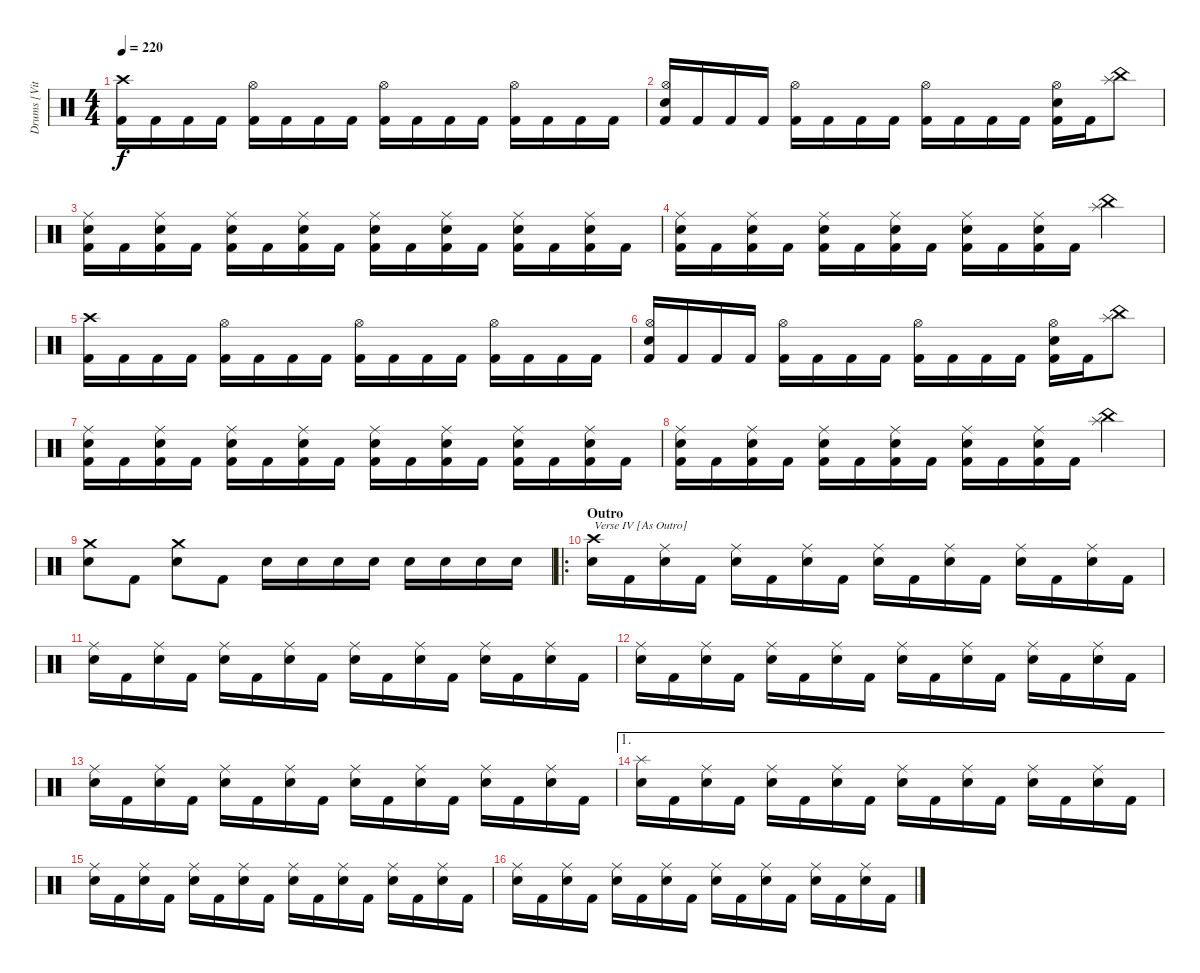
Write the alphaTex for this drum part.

\track ("Drums [Vitek]" "Drums [Vit") {instrument percussion}
\staff {score}
\articulation defaults
\ts (4 4)
\tempo 220
\clef neutral
\ks c
("Crash high (hit)" "Kick (hit) 2").16{dy f} "Kick (hit) 2".16 "Kick (hit) 2".16 "Kick (hit) 2".16 ("Hi-Hat (open)" "Kick (hit) 2").16 "Kick (hit) 2".16 "Kick (hit) 2".16 "Kick (hit) 2".16 ("Hi-Hat (open)" "Kick (hit) 2").16 "Kick (hit) 2".16 "Kick (hit) 2".16 "Kick (hit) 2".16 ("Hi-Hat (open)" "Kick (hit) 2").16 "Kick (hit) 2".16 "Kick (hit) 2".16 "Kick (hit) 2".16 |
("Hi-Hat (open)" "Electric Snare (hit)" "Kick (hit) 2").16 "Kick (hit) 2".16 "Kick (hit) 2".16 "Kick (hit) 2".16 ("Hi-Hat (open)" "Kick (hit) 2").16 "Kick (hit) 2".16 "Kick (hit) 2".16 "Kick (hit) 2".16 ("Hi-Hat (open)" "Kick (hit) 2").16 "Kick (hit) 2".16 "Kick (hit) 2".16 "Kick (hit) 2".16 ("Hi-Hat (open)" "Electric Snare (hit)" "Kick (hit) 2").16 "Kick (hit) 2".16 ("Splash (hit)" "China (hit)").8 |
("Ride (middle)" "Electric Snare (hit)" "Kick (hit) 2").16 "Kick (hit) 2".16 ("Ride (middle)" "Electric Snare (hit)" "Kick (hit) 2").16 "Kick (hit) 2".16 ("Ride (middle)" "Electric Snare (hit)" "Kick (hit) 2").16 "Kick (hit) 2".16 ("Ride (middle)" "Electric Snare (hit)" "Kick (hit) 2").16 "Kick (hit) 2".16 ("Ride (middle)" "Electric Snare (hit)" "Kick (hit) 2").16 "Kick (hit) 2".16 ("Ride (middle)" "Electric Snare (hit)" "Kick (hit) 2").16 "Kick (hit) 2".16 ("Ride (middle)" "Electric Snare (hit)" "Kick (hit) 2").16 "Kick (hit) 2".16 ("Ride (middle)" "Electric Snare (hit)" "Kick (hit) 2").16 "Kick (hit) 2".16 |
("Ride (middle)" "Electric Snare (hit)" "Kick (hit) 2").16 "Kick (hit) 2".16 ("Ride (middle)" "Electric Snare (hit)" "Kick (hit) 2").16 "Kick (hit) 2".16 ("Ride (middle)" "Electric Snare (hit)" "Kick (hit) 2").16 "Kick (hit) 2".16 ("Ride (middle)" "Electric Snare (hit)" "Kick (hit) 2").16 "Kick (hit) 2".16 ("Ride (middle)" "Electric Snare (hit)" "Kick (hit) 2").16 "Kick (hit) 2".16 ("Ride (middle)" "Electric Snare (hit)" "Kick (hit) 2").16 "Kick (hit) 2".16 ("Splash (hit)" "China (hit)").4 |
("Crash high (hit)" "Kick (hit) 2").16 "Kick (hit) 2".16 "Kick (hit) 2".16 "Kick (hit) 2".16 ("Hi-Hat (open)" "Kick (hit) 2").16 "Kick (hit) 2".16 "Kick (hit) 2".16 "Kick (hit) 2".16 ("Hi-Hat (open)" "Kick (hit) 2").16 "Kick (hit) 2".16 "Kick (hit) 2".16 "Kick (hit) 2".16 ("Hi-Hat (open)" "Kick (hit) 2").16 "Kick (hit) 2".16 "Kick (hit) 2".16 "Kick (hit) 2".16 |
("Hi-Hat (open)" "Electric Snare (hit)" "Kick (hit) 2").16 "Kick (hit) 2".16 "Kick (hit) 2".16 "Kick (hit) 2".16 ("Hi-Hat (open)" "Kick (hit) 2").16 "Kick (hit) 2".16 "Kick (hit) 2".16 "Kick (hit) 2".16 ("Hi-Hat (open)" "Kick (hit) 2").16 "Kick (hit) 2".16 "Kick (hit) 2".16 "Kick (hit) 2".16 ("Hi-Hat (open)" "Electric Snare (hit)" "Kick (hit) 2").16 "Kick (hit) 2".16 ("Splash (hit)" "China (hit)").8 |
("Ride (middle)" "Electric Snare (hit)" "Kick (hit) 2").16 "Kick (hit) 2".16 ("Ride (middle)" "Electric Snare (hit)" "Kick (hit) 2").16 "Kick (hit) 2".16 ("Ride (middle)" "Electric Snare (hit)" "Kick (hit) 2").16 "Kick (hit) 2".16 ("Ride (middle)" "Electric Snare (hit)" "Kick (hit) 2").16 "Kick (hit) 2".16 ("Ride (middle)" "Electric Snare (hit)" "Kick (hit) 2").16 "Kick (hit) 2".16 ("Ride (middle)" "Electric Snare (hit)" "Kick (hit) 2").16 "Kick (hit) 2".16 ("Ride (middle)" "Electric Snare (hit)" "Kick (hit) 2").16 "Kick (hit) 2".16 ("Ride (middle)" "Electric Snare (hit)" "Kick (hit) 2").16 "Kick (hit) 2".16 |
("Ride (middle)" "Electric Snare (hit)" "Kick (hit) 2").16 "Kick (hit) 2".16 ("Ride (middle)" "Electric Snare (hit)" "Kick (hit) 2").16 "Kick (hit) 2".16 ("Ride (middle)" "Electric Snare (hit)" "Kick (hit) 2").16 "Kick (hit) 2".16 ("Ride (middle)" "Electric Snare (hit)" "Kick (hit) 2").16 "Kick (hit) 2".16 ("Ride (middle)" "Electric Snare (hit)" "Kick (hit) 2").16 "Kick (hit) 2".16 ("Ride (middle)" "Electric Snare (hit)" "Kick (hit) 2").16 "Kick (hit) 2".16 ("Splash (hit)" "China (hit)").4 |
("Crash medium (hit)" "Electric Snare (hit)").8 "Kick (hit) 2".8 ("Crash medium (hit)" "Electric Snare (hit)").8 "Kick (hit) 2".8 "Electric Snare (hit)".16 "Electric Snare (hit)".16 "Electric Snare (hit)".16 "Electric Snare (hit)".16 "Electric Snare (hit)".16 "Electric Snare (hit)".16 "Electric Snare (hit)".16 "Electric Snare (hit)".16 |
\ro
\section ("" "Outro")
("Crash high (hit)" "Electric Snare (hit)").16{txt "Verse IV [As Outro]"} "Kick (hit) 2".16 ("Ride (middle)" "Electric Snare (hit)").16 "Kick (hit) 2".16 ("Ride (middle)" "Electric Snare (hit)").16 "Kick (hit) 2".16 ("Ride (middle)" "Electric Snare (hit)").16 "Kick (hit) 2".16 ("Ride (middle)" "Electric Snare (hit)").16 "Kick (hit) 2".16 ("Ride (middle)" "Electric Snare (hit)").16 "Kick (hit) 2".16 ("Ride (middle)" "Electric Snare (hit)").16 "Kick (hit) 2".16 ("Ride (middle)" "Electric Snare (hit)").16 "Kick (hit) 2".16 |
("Ride (middle)" "Electric Snare (hit)").16 "Kick (hit) 2".16 ("Ride (middle)" "Electric Snare (hit)").16 "Kick (hit) 2".16 ("Ride (middle)" "Electric Snare (hit)").16 "Kick (hit) 2".16 ("Ride (middle)" "Electric Snare (hit)").16 "Kick (hit) 2".16 ("Ride (middle)" "Electric Snare (hit)").16 "Kick (hit) 2".16 ("Ride (middle)" "Electric Snare (hit)").16 "Kick (hit) 2".16 ("Ride (middle)" "Electric Snare (hit)").16 "Kick (hit) 2".16 ("Ride (middle)" "Electric Snare (hit)").16 "Kick (hit) 2".16 |
("Ride (middle)" "Electric Snare (hit)").16 "Kick (hit) 2".16 ("Ride (middle)" "Electric Snare (hit)").16 "Kick (hit) 2".16 ("Ride (middle)" "Electric Snare (hit)").16 "Kick (hit) 2".16 ("Ride (middle)" "Electric Snare (hit)").16 "Kick (hit) 2".16 ("Ride (middle)" "Electric Snare (hit)").16 "Kick (hit) 2".16 ("Ride (middle)" "Electric Snare (hit)").16 "Kick (hit) 2".16 ("Ride (middle)" "Electric Snare (hit)").16 "Kick (hit) 2".16 ("Ride (middle)" "Electric Snare (hit)").16 "Kick (hit) 2".16 |
("Ride (middle)" "Electric Snare (hit)").16 "Kick (hit) 2".16 ("Ride (middle)" "Electric Snare (hit)").16 "Kick (hit) 2".16 ("Ride (middle)" "Electric Snare (hit)").16 "Kick (hit) 2".16 ("Ride (middle)" "Electric Snare (hit)").16 "Kick (hit) 2".16 ("Ride (middle)" "Electric Snare (hit)").16 "Kick (hit) 2".16 ("Ride (middle)" "Electric Snare (hit)").16 "Kick (hit) 2".16 ("Ride (middle)" "Electric Snare (hit)").16 "Kick (hit) 2".16 ("Ride (middle)" "Electric Snare (hit)").16 "Kick (hit) 2".16 |
\ae 1
("Splash (hit)" "Electric Snare (hit)").16 "Kick (hit) 2".16 ("Ride (middle)" "Electric Snare (hit)").16 "Kick (hit) 2".16 ("Ride (middle)" "Electric Snare (hit)").16 "Kick (hit) 2".16 ("Ride (middle)" "Electric Snare (hit)").16 "Kick (hit) 2".16 ("Ride (middle)" "Electric Snare (hit)").16 "Kick (hit) 2".16 ("Ride (middle)" "Electric Snare (hit)").16 "Kick (hit) 2".16 ("Ride (middle)" "Electric Snare (hit)").16 "Kick (hit) 2".16 ("Ride (middle)" "Electric Snare (hit)").16 "Kick (hit) 2".16 |
("Ride (middle)" "Electric Snare (hit)").16 "Kick (hit) 2".16 ("Ride (middle)" "Electric Snare (hit)").16 "Kick (hit) 2".16 ("Ride (middle)" "Electric Snare (hit)").16 "Kick (hit) 2".16 ("Ride (middle)" "Electric Snare (hit)").16 "Kick (hit) 2".16 ("Ride (middle)" "Electric Snare (hit)").16 "Kick (hit) 2".16 ("Ride (middle)" "Electric Snare (hit)").16 "Kick (hit) 2".16 ("Ride (middle)" "Electric Snare (hit)").16 "Kick (hit) 2".16 ("Ride (middle)" "Electric Snare (hit)").16 "Kick (hit) 2".16 |
("Ride (middle)" "Electric Snare (hit)").16 "Kick (hit) 2".16 ("Ride (middle)" "Electric Snare (hit)").16 "Kick (hit) 2".16 ("Ride (middle)" "Electric Snare (hit)").16 "Kick (hit) 2".16 ("Ride (middle)" "Electric Snare (hit)").16 "Kick (hit) 2".16 ("Ride (middle)" "Electric Snare (hit)").16 "Kick (hit) 2".16 ("Ride (middle)" "Electric Snare (hit)").16 "Kick (hit) 2".16 ("Ride (middle)" "Electric Snare (hit)").16 "Kick (hit) 2".16 ("Ride (middle)" "Electric Snare (hit)").16 "Kick (hit) 2".16
